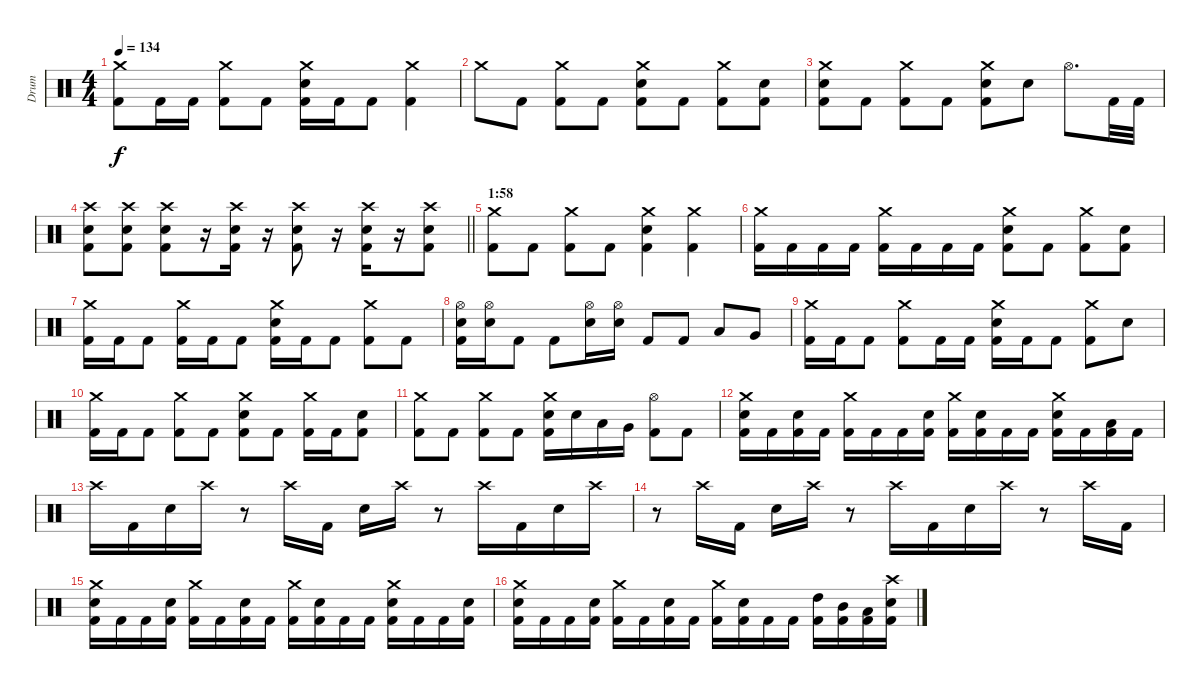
\track ("Drum" "Drum") {instrument percussion}
\staff {score}
\articulation defaults
\ts (4 4)
\tempo 134
\clef neutral
\ks c
("Crash medium (hit)" "Kick (hit) 2").8{dy f} "Kick (hit) 2".16 "Kick (hit) 2".16 ("Crash medium (hit)" "Kick (hit) 2").8 "Kick (hit) 2".8 ("Crash medium (hit)" "Electric Snare (hit)" "Kick (hit) 2").16 "Kick (hit) 2".16 "Kick (hit) 2".8 ("Crash medium (hit)" "Kick (hit) 2").4 |
"Crash medium (hit)".8 "Kick (hit) 2".8 ("Crash medium (hit)" "Kick (hit) 2").8 "Kick (hit) 2".8 ("Crash medium (hit)" "Electric Snare (hit)" "Kick (hit) 2").8 "Kick (hit) 2".8 ("Crash medium (hit)" "Kick (hit) 2").8 ("Electric Snare (hit)" "Kick (hit) 2").8 |
("Crash medium (hit)" "Electric Snare (hit)" "Kick (hit) 2").8 "Kick (hit) 2".8 ("Crash medium (hit)" "Kick (hit) 2").8 "Kick (hit) 2".8 ("Crash medium (hit)" "Electric Snare (hit)" "Kick (hit) 2").8 "Electric Snare (hit)".8 "Hi-Hat (open)".8{d} "Kick (hit) 2".32 "Kick (hit) 2".32 |
\barLineRight lightlight
("Crash high (hit)" "Electric Snare (hit)" "Kick (hit) 2").8 ("Crash high (hit)" "Electric Snare (hit)" "Kick (hit) 2").8 ("Crash high (hit)" "Electric Snare (hit)" "Kick (hit) 2").8 r.16 ("Crash high (hit)" "Electric Snare (hit)" "Kick (hit) 2").16 r.16 ("Crash high (hit)" "Electric Snare (hit)" "Kick (hit) 2").8 r.16 ("Crash high (hit)" "Electric Snare (hit)" "Kick (hit) 2").16 r.16 ("Crash high (hit)" "Electric Snare (hit)" "Kick (hit) 2").8 |
\section ("" "1:58")
("Crash medium (hit)" "Kick (hit) 2").8 "Kick (hit) 2".8 ("Crash medium (hit)" "Kick (hit) 2").8 "Kick (hit) 2".8 ("Crash medium (hit)" "Electric Snare (hit)" "Kick (hit) 2").4 ("Crash medium (hit)" "Kick (hit) 2").4 |
("Crash medium (hit)" "Kick (hit) 2").16 "Kick (hit) 2".16 "Kick (hit) 2".16 "Kick (hit) 2".16 ("Crash medium (hit)" "Kick (hit) 2").16 "Kick (hit) 2".16 "Kick (hit) 2".16 "Kick (hit) 2".16 ("Crash medium (hit)" "Electric Snare (hit)" "Kick (hit) 2").8 "Kick (hit) 2".8 ("Crash medium (hit)" "Kick (hit) 2").8 ("Electric Snare (hit)" "Kick (hit) 2").8 |
("Crash medium (hit)" "Kick (hit) 2").16 "Kick (hit) 2".16 "Kick (hit) 2".8 ("Crash medium (hit)" "Kick (hit) 2").16 "Kick (hit) 2".16 "Kick (hit) 2".8 ("Crash medium (hit)" "Electric Snare (hit)" "Kick (hit) 2").16 "Kick (hit) 2".16 "Kick (hit) 2".8 ("Crash medium (hit)" "Kick (hit) 2").8 "Kick (hit) 2".8 |
("Hi-Hat (open)" "Electric Snare (hit)" "Kick (hit) 2").16 ("Hi-Hat (open)" "Electric Snare (hit)").16 "Kick (hit) 2".8 "Kick (hit) 2".8 ("Hi-Hat (open)" "Electric Snare (hit)").16 ("Hi-Hat (open)" "Electric Snare (hit)").16 "Kick (hit) 2".8 "Kick (hit) 2".8 "Low Tom (hit)".8 "Very Low Tom (hit)".8 |
("Crash medium (hit)" "Kick (hit) 2").16 "Kick (hit) 2".16 "Kick (hit) 2".8 ("Crash medium (hit)" "Kick (hit) 2").8 "Kick (hit) 2".16 "Kick (hit) 2".16 ("Crash medium (hit)" "Electric Snare (hit)" "Kick (hit) 2").16 "Kick (hit) 2".16 "Kick (hit) 2".8 ("Crash medium (hit)" "Kick (hit) 2").8 "Electric Snare (hit)".8 |
("Crash medium (hit)" "Kick (hit) 2").16 "Kick (hit) 2".16 "Kick (hit) 2".8 ("Crash medium (hit)" "Kick (hit) 2").8 "Kick (hit) 2".8 ("Crash medium (hit)" "Electric Snare (hit)" "Kick (hit) 2").8 "Kick (hit) 2".8 ("Crash medium (hit)" "Kick (hit) 2").16 "Kick (hit) 2".16 ("Electric Snare (hit)" "Kick (hit) 2").8 |
("Crash medium (hit)" "Kick (hit) 2").8 "Kick (hit) 2".8 ("Crash medium (hit)" "Kick (hit) 2").8 "Kick (hit) 2".8 ("Crash medium (hit)" "Electric Snare (hit)" "Kick (hit) 2").16 "Electric Snare (hit)".16 "Low Tom (hit)".16 "Very Low Tom (hit)".16 ("Hi-Hat (open)" "Kick (hit) 2").8 "Kick (hit) 2".8 |
("Crash medium (hit)" "Electric Snare (hit)" "Kick (hit) 2").16 "Kick (hit) 2".16 ("Electric Snare (hit)" "Kick (hit) 2").16 "Kick (hit) 2".16 ("Crash medium (hit)" "Kick (hit) 2").16 "Kick (hit) 2".16 "Kick (hit) 2".16 ("Electric Snare (hit)" "Kick (hit) 2").16 ("Crash medium (hit)" "Kick (hit) 2").16 ("Electric Snare (hit)" "Kick (hit) 2").16 "Kick (hit) 2".16 "Kick (hit) 2".16 ("Crash medium (hit)" "Electric Snare (hit)" "Kick (hit) 2").16 "Kick (hit) 2".16 ("Low Tom (hit)" "Kick (hit) 2").16 "Kick (hit) 2".16 |
"Crash high (hit)".16 "Kick (hit) 2".16 "Electric Snare (hit)".16 "Crash high (hit)".16 r.8 "Crash high (hit)".16 "Kick (hit) 2".16 "Electric Snare (hit)".16 "Crash high (hit)".16 r.8 "Crash high (hit)".16 "Kick (hit) 2".16 "Electric Snare (hit)".16 "Crash high (hit)".16 |
r.8 "Crash high (hit)".16 "Kick (hit) 2".16 "Electric Snare (hit)".16 "Crash high (hit)".16 r.8 "Crash high (hit)".16 "Kick (hit) 2".16 "Electric Snare (hit)".16 "Crash high (hit)".16 r.8 "Crash high (hit)".16 "Kick (hit) 2".16 |
("Crash medium (hit)" "Electric Snare (hit)" "Kick (hit) 2").16 "Kick (hit) 2".16 "Kick (hit) 2".16 ("Electric Snare (hit)" "Kick (hit) 2").16 ("Crash medium (hit)" "Kick (hit) 2").16 "Kick (hit) 2".16 ("Electric Snare (hit)" "Kick (hit) 2").16 "Kick (hit) 2".16 ("Crash medium (hit)" "Kick (hit) 2").16 ("Electric Snare (hit)" "Kick (hit) 2").16 "Kick (hit) 2".16 "Kick (hit) 2".16 ("Crash medium (hit)" "Electric Snare (hit)" "Kick (hit) 2").16 "Kick (hit) 2".16 "Kick (hit) 2".16 ("Electric Snare (hit)" "Kick (hit) 2").16 |
("Crash medium (hit)" "Electric Snare (hit)" "Kick (hit) 2").16 "Kick (hit) 2".16 "Kick (hit) 2".16 ("Electric Snare (hit)" "Kick (hit) 2").16 ("Crash medium (hit)" "Kick (hit) 2").16 "Kick (hit) 2".16 ("Electric Snare (hit)" "Kick (hit) 2").16 "Kick (hit) 2".16 ("Crash medium (hit)" "Kick (hit) 2").16 ("Electric Snare (hit)" "Kick (hit) 2").16 "Kick (hit) 2".16 "Kick (hit) 2".16 ("High Tom (hit)" "Kick (hit) 2").16 ("Mid Tom (hit)" "Kick (hit) 2").16 ("Low Tom (hit)" "Kick (hit) 2").16 ("Crash high (hit)" "Electric Snare (hit)" "Kick (hit) 2").16
